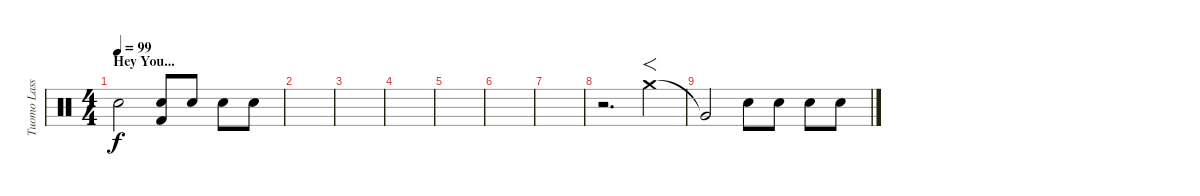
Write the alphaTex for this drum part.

\track ("Tuomo Lassila" "Tuomo Lass") {instrument percussion}
\staff {score}
\articulation defaults
\ts (4 4)
\section ("" "Hey You...")
\tempo 99
\clef neutral
\ks c "Snare (hit)"{t}.2{dy f}
("Electric Snare (hit)" "Kick (hit) 2").8 "Electric Snare (hit)".8{volume 5} "Electric Snare (hit)".8{volume 3} "Electric Snare (hit)".8{volume 2} |
|
|
|
|
|
|
r.2{d volume 11} "Crash medium (hit)".4{f} |
"Very Low Tom (hit)"{t}.2 "Electric Snare (hit)".8 "Electric Snare (hit)".8{volume 5 balance 0} "Electric Snare (hit)".8{volume 3 balance 16} "Electric Snare (hit)".8{volume 2 balance 0}
